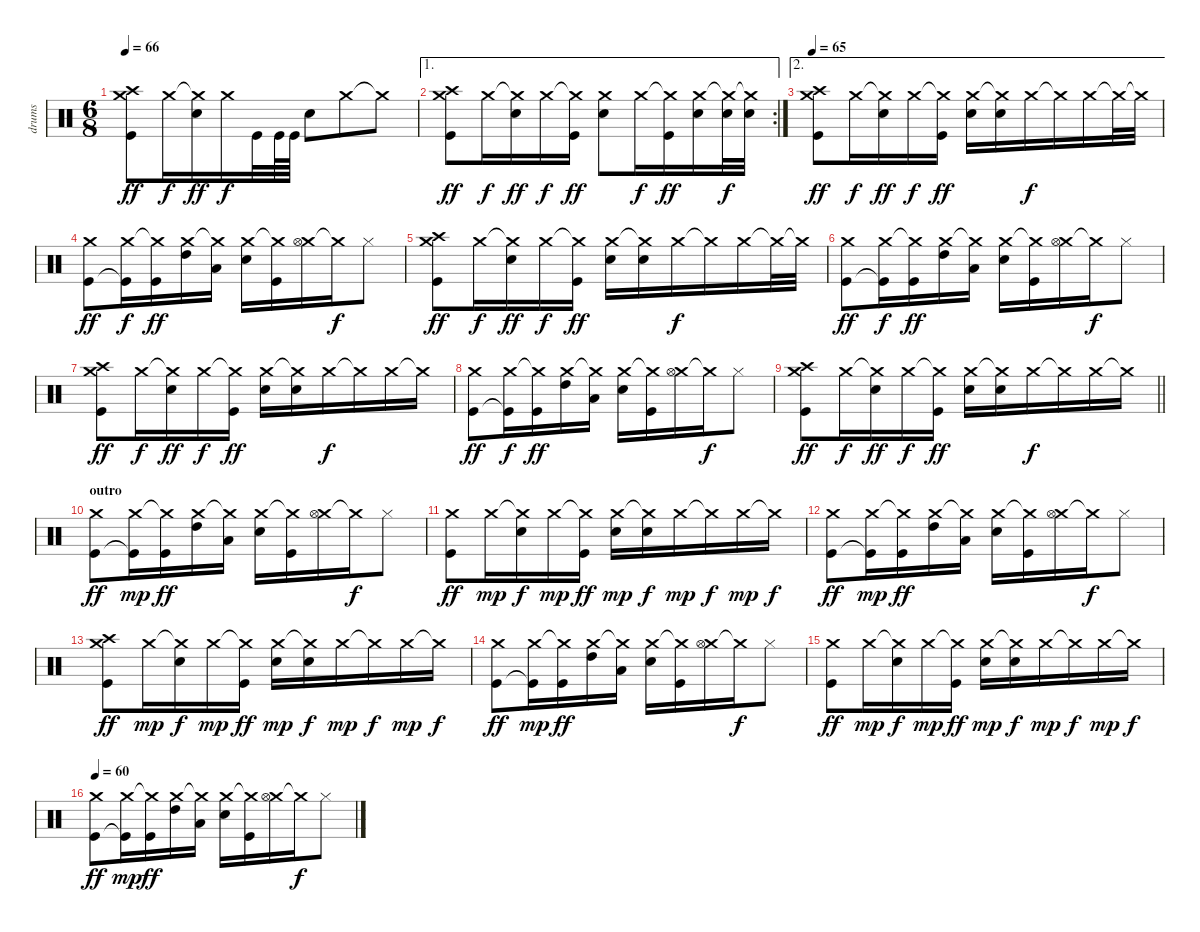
\track ("drums" "drums") {instrument percussion}
\staff {score}
\articulation defaults
\ts (6 8)
\tempo 66
\clef neutral
\ks c
("Crash high (hit)" "Crash medium (hit)" "Kick (hit)").8{dy ff} "Crash medium (hit)".16{dy f} ("Crash medium (hit)"{t} "Electric Snare (hit)").16{dy ff} "Crash medium (hit)".16{dy f} "Kick (hit)".32 "Kick (hit)".64 "Kick (hit)".64 "Electric Snare (hit)".8 "Crash medium (hit)".8 "Crash medium (hit)"{t}.8 |
\ae 1
\rc 2
("Crash high (hit)" "Crash medium (hit)" "Kick (hit)").8{dy ff} "Crash medium (hit)".16{dy f} ("Crash medium (hit)"{t} "Electric Snare (hit)").16{dy ff} "Crash medium (hit)".16{dy f} ("Crash medium (hit)"{t} "Kick (hit)").16{dy ff} ("Crash medium (hit)" "Electric Snare (hit)").8 "Crash medium (hit)".16{dy f} ("Crash medium (hit)"{t} "Kick (hit)").16{dy ff} ("Crash medium (hit)" "Electric Snare (hit)").16 ("Crash medium (hit)"{t} "Electric Snare (hit)").32{dy f} ("Crash medium (hit)"{t} "Electric Snare (hit)").32 |
\ae 2
\tempo 65
("Crash high (hit)" "Crash medium (hit)" "Kick (hit)").8{dy ff} "Crash medium (hit)".16{dy f} ("Crash medium (hit)"{t} "Electric Snare (hit)").16{dy ff} "Crash medium (hit)".16{dy f} ("Crash medium (hit)"{t} "Kick (hit)").16{dy ff} ("Crash medium (hit)" "Electric Snare (hit)").16 ("Crash medium (hit)"{t} "Electric Snare (hit)").16 "Crash medium (hit)".16{dy f} "Crash medium (hit)"{t}.16 "Crash medium (hit)".16 "Crash medium (hit)"{t}.32 "Crash medium (hit)"{t}.32 |
("Crash medium (hit)" "Kick (hit)").8{dy ff} ("Crash medium (hit)" "Kick (hit)"{t}).16{dy f} ("Crash medium (hit)"{t} "Kick (hit)").16{dy ff} ("Crash medium (hit)" "High Tom (hit)").16 ("Crash medium (hit)"{t} "Low Tom (hit)").16 ("Crash medium (hit)" "Electric Snare (hit)").16 ("Crash medium (hit)"{t} "Kick (hit)").16 ("Crash medium (hit)" "Hi-Hat (open)").16 "Crash medium (hit)"{t}.16{dy f} "Hi-Hat (closed)".8 |
("Crash high (hit)" "Crash medium (hit)" "Kick (hit)").8{dy ff} "Crash medium (hit)".16{dy f} ("Crash medium (hit)"{t} "Electric Snare (hit)").16{dy ff} "Crash medium (hit)".16{dy f} ("Crash medium (hit)"{t} "Kick (hit)").16{dy ff} ("Crash medium (hit)" "Electric Snare (hit)").16 ("Crash medium (hit)"{t} "Electric Snare (hit)").16 "Crash medium (hit)".16{dy f} "Crash medium (hit)"{t}.16 "Crash medium (hit)".16 "Crash medium (hit)"{t}.32 "Crash medium (hit)"{t}.32 |
("Crash medium (hit)" "Kick (hit)").8{dy ff} ("Crash medium (hit)" "Kick (hit)"{t}).16{dy f} ("Crash medium (hit)"{t} "Kick (hit)").16{dy ff} ("Crash medium (hit)" "High Tom (hit)").16 ("Crash medium (hit)"{t} "Low Tom (hit)").16 ("Crash medium (hit)" "Electric Snare (hit)").16 ("Crash medium (hit)"{t} "Kick (hit)").16 ("Crash medium (hit)" "Hi-Hat (open)").16 "Crash medium (hit)"{t}.16{dy f} "Hi-Hat (closed)".8 |
("Crash high (hit)" "Crash medium (hit)" "Kick (hit)").8{dy ff} "Crash medium (hit)".16{dy f} ("Crash medium (hit)"{t} "Electric Snare (hit)").16{dy ff} "Crash medium (hit)".16{dy f} ("Crash medium (hit)"{t} "Kick (hit)").16{dy ff} ("Crash medium (hit)" "Electric Snare (hit)").16 ("Crash medium (hit)"{t} "Electric Snare (hit)").16 "Crash medium (hit)".16{dy f} "Crash medium (hit)"{t}.16 "Crash medium (hit)".16 "Crash medium (hit)"{t}.16 |
("Crash medium (hit)" "Kick (hit)").8{dy ff} ("Crash medium (hit)" "Kick (hit)"{t}).16{dy f} ("Crash medium (hit)"{t} "Kick (hit)").16{dy ff} ("Crash medium (hit)" "High Tom (hit)").16 ("Crash medium (hit)"{t} "Low Tom (hit)").16 ("Crash medium (hit)" "Electric Snare (hit)").16 ("Crash medium (hit)"{t} "Kick (hit)").16 ("Crash medium (hit)" "Hi-Hat (open)").16 "Crash medium (hit)"{t}.16{dy f} "Hi-Hat (closed)".8 |
\barLineRight lightlight
("Crash high (hit)" "Crash medium (hit)" "Kick (hit)").8{dy ff} "Crash medium (hit)".16{dy f} ("Crash medium (hit)"{t} "Electric Snare (hit)").16{dy ff} "Crash medium (hit)".16{dy f} ("Crash medium (hit)"{t} "Kick (hit)").16{dy ff} ("Crash medium (hit)" "Electric Snare (hit)").16 ("Crash medium (hit)"{t} "Electric Snare (hit)").16 "Crash medium (hit)".16{dy f} "Crash medium (hit)"{t}.16 "Crash medium (hit)".16 "Crash medium (hit)"{t}.16 |
\section ("" "outro")
("Crash medium (hit)" "Kick (hit)").8{dy ff} ("Crash medium (hit)" "Kick (hit)"{t}).16{dy mp} ("Crash medium (hit)"{t} "Kick (hit)").16{dy ff} ("Crash medium (hit)" "High Tom (hit)").16 ("Crash medium (hit)"{t} "Low Tom (hit)").16 ("Crash medium (hit)" "Electric Snare (hit)").16 ("Crash medium (hit)"{t} "Kick (hit)").16 ("Crash medium (hit)" "Hi-Hat (open)").16 "Crash medium (hit)"{t}.16{dy f} "Hi-Hat (closed)".8 |
("Crash medium (hit)" "Kick (hit)").8{dy ff} "Crash medium (hit)".16{dy mp} ("Crash medium (hit)"{t} "Electric Snare (hit)").16{dy f} "Crash medium (hit)".16{dy mp} ("Crash medium (hit)"{t} "Kick (hit)").16{dy ff} ("Crash medium (hit)" "Electric Snare (hit)").16{dy mp} ("Crash medium (hit)"{t} "Electric Snare (hit)").16{dy f} "Crash medium (hit)".16{dy mp} "Crash medium (hit)"{t}.16{dy f} "Crash medium (hit)".16{dy mp} "Crash medium (hit)"{t}.16{dy f} |
("Crash medium (hit)" "Kick (hit)").8{dy ff} ("Crash medium (hit)" "Kick (hit)"{t}).16{dy mp} ("Crash medium (hit)"{t} "Kick (hit)").16{dy ff} ("Crash medium (hit)" "High Tom (hit)").16 ("Crash medium (hit)"{t} "Low Tom (hit)").16 ("Crash medium (hit)" "Electric Snare (hit)").16 ("Crash medium (hit)"{t} "Kick (hit)").16 ("Crash medium (hit)" "Hi-Hat (open)").16 "Crash medium (hit)"{t}.16{dy f} "Hi-Hat (closed)".8 |
("Crash high (hit)" "Crash medium (hit)" "Kick (hit)").8{dy ff} "Crash medium (hit)".16{dy mp} ("Crash medium (hit)"{t} "Electric Snare (hit)").16{dy f} "Crash medium (hit)".16{dy mp} ("Crash medium (hit)"{t} "Kick (hit)").16{dy ff} ("Crash medium (hit)" "Electric Snare (hit)").16{dy mp} ("Crash medium (hit)"{t} "Electric Snare (hit)").16{dy f} "Crash medium (hit)".16{dy mp} "Crash medium (hit)"{t}.16{dy f} "Crash medium (hit)".16{dy mp} "Crash medium (hit)"{t}.16{dy f} |
("Crash medium (hit)" "Kick (hit)").8{dy ff} ("Crash medium (hit)" "Kick (hit)"{t}).16{dy mp} ("Crash medium (hit)"{t} "Kick (hit)").16{dy ff} ("Crash medium (hit)" "High Tom (hit)").16 ("Crash medium (hit)"{t} "Low Tom (hit)").16 ("Crash medium (hit)" "Electric Snare (hit)").16 ("Crash medium (hit)"{t} "Kick (hit)").16 ("Crash medium (hit)" "Hi-Hat (open)").16 "Crash medium (hit)"{t}.16{dy f} "Hi-Hat (closed)".8 |
("Crash medium (hit)" "Kick (hit)").8{dy ff} "Crash medium (hit)".16{dy mp} ("Crash medium (hit)"{t} "Electric Snare (hit)").16{dy f} "Crash medium (hit)".16{dy mp} ("Crash medium (hit)"{t} "Kick (hit)").16{dy ff} ("Crash medium (hit)" "Electric Snare (hit)").16{dy mp} ("Crash medium (hit)"{t} "Electric Snare (hit)").16{dy f} "Crash medium (hit)".16{dy mp} "Crash medium (hit)"{t}.16{dy f} "Crash medium (hit)".16{dy mp} "Crash medium (hit)"{t}.16{dy f} |
\tempo 60
("Crash medium (hit)" "Kick (hit)").8{dy ff} ("Crash medium (hit)" "Kick (hit)"{t}).16{dy mp} ("Crash medium (hit)"{t} "Kick (hit)").16{dy ff} ("Crash medium (hit)" "High Tom (hit)").16 ("Crash medium (hit)"{t} "Low Tom (hit)").16 ("Crash medium (hit)" "Electric Snare (hit)").16 ("Crash medium (hit)"{t} "Kick (hit)").16 ("Crash medium (hit)" "Hi-Hat (open)").16 "Crash medium (hit)"{t}.16{dy f} "Hi-Hat (closed)".8
